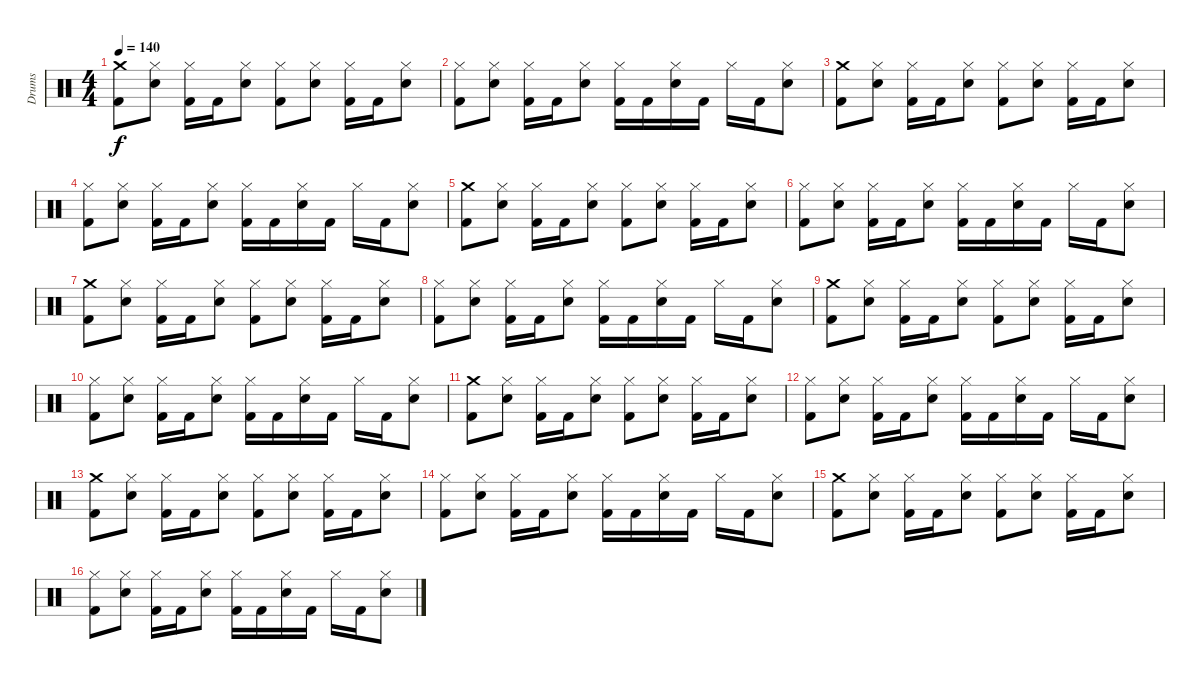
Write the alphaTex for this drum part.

\track ("Drums" "Drums") {instrument percussion}
\staff {score}
\articulation defaults
\ts (4 4)
\tempo 140
\clef neutral
\ks c
("Crash medium (hit)" "Kick (hit) 2").8{dy f} ("Hi-Hat (closed)" "Electric Snare (hit)").8 ("Hi-Hat (closed)" "Kick (hit) 2").16 "Kick (hit) 2".16 ("Hi-Hat (closed)" "Electric Snare (hit)").8 ("Hi-Hat (closed)" "Kick (hit) 2").8 ("Hi-Hat (closed)" "Electric Snare (hit)").8 ("Hi-Hat (closed)" "Kick (hit) 2").16 "Kick (hit) 2".16 ("Hi-Hat (closed)" "Electric Snare (hit)").8 |
("Hi-Hat (closed)" "Kick (hit) 2").8 ("Hi-Hat (closed)" "Electric Snare (hit)").8 ("Hi-Hat (closed)" "Kick (hit) 2").16 "Kick (hit) 2".16 ("Hi-Hat (closed)" "Electric Snare (hit)").8 ("Hi-Hat (closed)" "Kick (hit) 2").16 "Kick (hit) 2".16 ("Hi-Hat (closed)" "Electric Snare (hit)").16 "Kick (hit) 2".16 "Hi-Hat (closed)".16 "Kick (hit) 2".16 ("Hi-Hat (closed)" "Electric Snare (hit)").8 |
("Crash medium (hit)" "Kick (hit) 2").8 ("Hi-Hat (closed)" "Electric Snare (hit)").8 ("Hi-Hat (closed)" "Kick (hit) 2").16 "Kick (hit) 2".16 ("Hi-Hat (closed)" "Electric Snare (hit)").8 ("Hi-Hat (closed)" "Kick (hit) 2").8 ("Hi-Hat (closed)" "Electric Snare (hit)").8 ("Hi-Hat (closed)" "Kick (hit) 2").16 "Kick (hit) 2".16 ("Hi-Hat (closed)" "Electric Snare (hit)").8 |
("Hi-Hat (closed)" "Kick (hit) 2").8 ("Hi-Hat (closed)" "Electric Snare (hit)").8 ("Hi-Hat (closed)" "Kick (hit) 2").16 "Kick (hit) 2".16 ("Hi-Hat (closed)" "Electric Snare (hit)").8 ("Hi-Hat (closed)" "Kick (hit) 2").16 "Kick (hit) 2".16 ("Hi-Hat (closed)" "Electric Snare (hit)").16 "Kick (hit) 2".16 "Hi-Hat (closed)".16 "Kick (hit) 2".16 ("Hi-Hat (closed)" "Electric Snare (hit)").8 |
("Crash medium (hit)" "Kick (hit) 2").8 ("Hi-Hat (closed)" "Electric Snare (hit)").8 ("Hi-Hat (closed)" "Kick (hit) 2").16 "Kick (hit) 2".16 ("Hi-Hat (closed)" "Electric Snare (hit)").8 ("Hi-Hat (closed)" "Kick (hit) 2").8 ("Hi-Hat (closed)" "Electric Snare (hit)").8 ("Hi-Hat (closed)" "Kick (hit) 2").16 "Kick (hit) 2".16 ("Hi-Hat (closed)" "Electric Snare (hit)").8 |
("Hi-Hat (closed)" "Kick (hit) 2").8 ("Hi-Hat (closed)" "Electric Snare (hit)").8 ("Hi-Hat (closed)" "Kick (hit) 2").16 "Kick (hit) 2".16 ("Hi-Hat (closed)" "Electric Snare (hit)").8 ("Hi-Hat (closed)" "Kick (hit) 2").16 "Kick (hit) 2".16 ("Hi-Hat (closed)" "Electric Snare (hit)").16 "Kick (hit) 2".16 "Hi-Hat (closed)".16 "Kick (hit) 2".16 ("Hi-Hat (closed)" "Electric Snare (hit)").8 |
("Crash medium (hit)" "Kick (hit) 2").8 ("Hi-Hat (closed)" "Electric Snare (hit)").8 ("Hi-Hat (closed)" "Kick (hit) 2").16 "Kick (hit) 2".16 ("Hi-Hat (closed)" "Electric Snare (hit)").8 ("Hi-Hat (closed)" "Kick (hit) 2").8 ("Hi-Hat (closed)" "Electric Snare (hit)").8 ("Hi-Hat (closed)" "Kick (hit) 2").16 "Kick (hit) 2".16 ("Hi-Hat (closed)" "Electric Snare (hit)").8 |
("Hi-Hat (closed)" "Kick (hit) 2").8 ("Hi-Hat (closed)" "Electric Snare (hit)").8 ("Hi-Hat (closed)" "Kick (hit) 2").16 "Kick (hit) 2".16 ("Hi-Hat (closed)" "Electric Snare (hit)").8 ("Hi-Hat (closed)" "Kick (hit) 2").16 "Kick (hit) 2".16 ("Hi-Hat (closed)" "Electric Snare (hit)").16 "Kick (hit) 2".16 "Hi-Hat (closed)".16 "Kick (hit) 2".16 ("Hi-Hat (closed)" "Electric Snare (hit)").8 |
("Crash medium (hit)" "Kick (hit) 2").8 ("Hi-Hat (closed)" "Electric Snare (hit)").8 ("Hi-Hat (closed)" "Kick (hit) 2").16 "Kick (hit) 2".16 ("Hi-Hat (closed)" "Electric Snare (hit)").8 ("Hi-Hat (closed)" "Kick (hit) 2").8 ("Hi-Hat (closed)" "Electric Snare (hit)").8 ("Hi-Hat (closed)" "Kick (hit) 2").16 "Kick (hit) 2".16 ("Hi-Hat (closed)" "Electric Snare (hit)").8 |
("Hi-Hat (closed)" "Kick (hit) 2").8 ("Hi-Hat (closed)" "Electric Snare (hit)").8 ("Hi-Hat (closed)" "Kick (hit) 2").16 "Kick (hit) 2".16 ("Hi-Hat (closed)" "Electric Snare (hit)").8 ("Hi-Hat (closed)" "Kick (hit) 2").16 "Kick (hit) 2".16 ("Hi-Hat (closed)" "Electric Snare (hit)").16 "Kick (hit) 2".16 "Hi-Hat (closed)".16 "Kick (hit) 2".16 ("Hi-Hat (closed)" "Electric Snare (hit)").8 |
("Crash medium (hit)" "Kick (hit) 2").8 ("Hi-Hat (closed)" "Electric Snare (hit)").8 ("Hi-Hat (closed)" "Kick (hit) 2").16 "Kick (hit) 2".16 ("Hi-Hat (closed)" "Electric Snare (hit)").8 ("Hi-Hat (closed)" "Kick (hit) 2").8 ("Hi-Hat (closed)" "Electric Snare (hit)").8 ("Hi-Hat (closed)" "Kick (hit) 2").16 "Kick (hit) 2".16 ("Hi-Hat (closed)" "Electric Snare (hit)").8 |
("Hi-Hat (closed)" "Kick (hit) 2").8 ("Hi-Hat (closed)" "Electric Snare (hit)").8 ("Hi-Hat (closed)" "Kick (hit) 2").16 "Kick (hit) 2".16 ("Hi-Hat (closed)" "Electric Snare (hit)").8 ("Hi-Hat (closed)" "Kick (hit) 2").16 "Kick (hit) 2".16 ("Hi-Hat (closed)" "Electric Snare (hit)").16 "Kick (hit) 2".16 "Hi-Hat (closed)".16 "Kick (hit) 2".16 ("Hi-Hat (closed)" "Electric Snare (hit)").8 |
("Crash medium (hit)" "Kick (hit) 2").8 ("Hi-Hat (closed)" "Electric Snare (hit)").8 ("Hi-Hat (closed)" "Kick (hit) 2").16 "Kick (hit) 2".16 ("Hi-Hat (closed)" "Electric Snare (hit)").8 ("Hi-Hat (closed)" "Kick (hit) 2").8 ("Hi-Hat (closed)" "Electric Snare (hit)").8 ("Hi-Hat (closed)" "Kick (hit) 2").16 "Kick (hit) 2".16 ("Hi-Hat (closed)" "Electric Snare (hit)").8 |
("Hi-Hat (closed)" "Kick (hit) 2").8 ("Hi-Hat (closed)" "Electric Snare (hit)").8 ("Hi-Hat (closed)" "Kick (hit) 2").16 "Kick (hit) 2".16 ("Hi-Hat (closed)" "Electric Snare (hit)").8 ("Hi-Hat (closed)" "Kick (hit) 2").16 "Kick (hit) 2".16 ("Hi-Hat (closed)" "Electric Snare (hit)").16 "Kick (hit) 2".16 "Hi-Hat (closed)".16 "Kick (hit) 2".16 ("Hi-Hat (closed)" "Electric Snare (hit)").8 |
("Crash medium (hit)" "Kick (hit) 2").8 ("Hi-Hat (closed)" "Electric Snare (hit)").8 ("Hi-Hat (closed)" "Kick (hit) 2").16 "Kick (hit) 2".16 ("Hi-Hat (closed)" "Electric Snare (hit)").8 ("Hi-Hat (closed)" "Kick (hit) 2").8 ("Hi-Hat (closed)" "Electric Snare (hit)").8 ("Hi-Hat (closed)" "Kick (hit) 2").16 "Kick (hit) 2".16 ("Hi-Hat (closed)" "Electric Snare (hit)").8 |
("Hi-Hat (closed)" "Kick (hit) 2").8 ("Hi-Hat (closed)" "Electric Snare (hit)").8 ("Hi-Hat (closed)" "Kick (hit) 2").16 "Kick (hit) 2".16 ("Hi-Hat (closed)" "Electric Snare (hit)").8 ("Hi-Hat (closed)" "Kick (hit) 2").16 "Kick (hit) 2".16 ("Hi-Hat (closed)" "Electric Snare (hit)").16 "Kick (hit) 2".16 "Hi-Hat (closed)".16 "Kick (hit) 2".16 ("Hi-Hat (closed)" "Electric Snare (hit)").8
